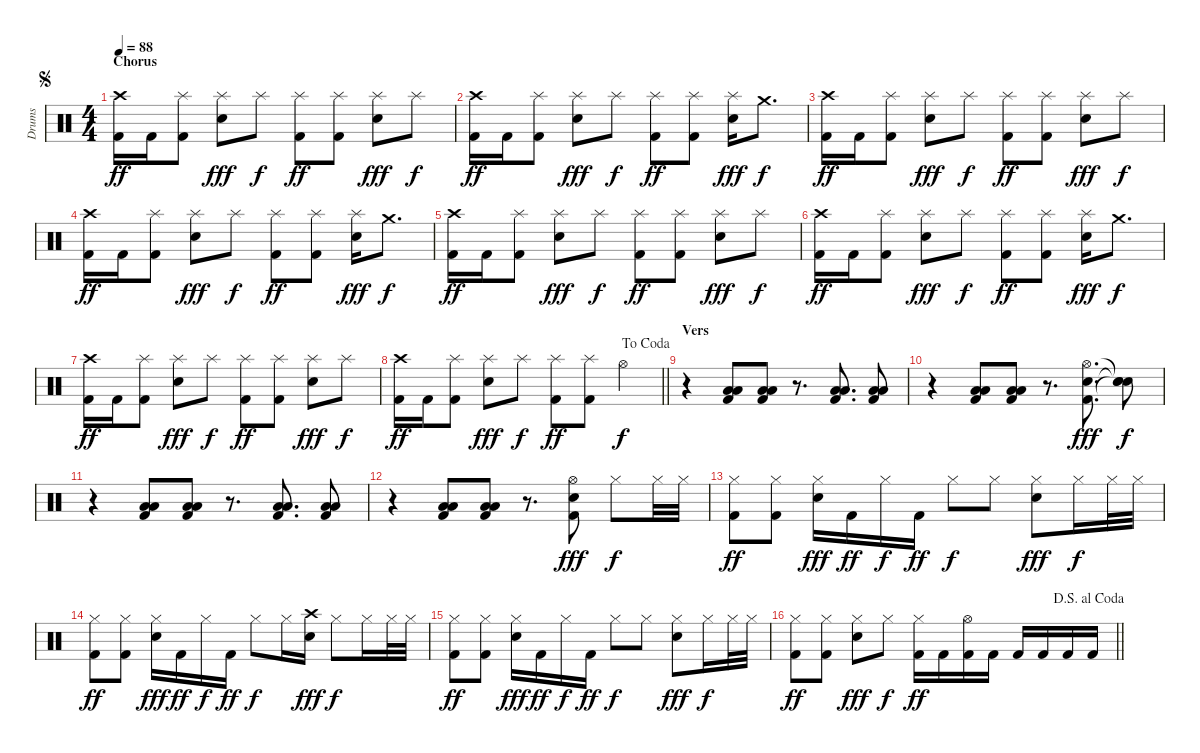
\track ("Drums" "Drums") {instrument percussion}
\staff {score}
\articulation defaults
\ts (4 4)
\section ("" "Chorus")
\jump segno
\tempo 88
\clef neutral
\ks c
("Crash high (hit)" "Kick (hit) 2").16{dy ff} "Kick (hit) 2".16 ("Splash (hit)" "Kick (hit) 2").8 ("Splash (hit)" "Snare (hit) 2").8{dy fff} "Splash (hit)".8{dy f} ("Splash (hit)" "Kick (hit) 2").8{dy ff} ("Splash (hit)" "Kick (hit) 2").8 ("Splash (hit)" "Snare (hit) 2").8{dy fff} "Splash (hit)".8{dy f} |
("Crash high (hit)" "Kick (hit) 2").16{dy ff} "Kick (hit) 2".16 ("Splash (hit)" "Kick (hit) 2").8 ("Splash (hit)" "Snare (hit) 2").8{dy fff} "Splash (hit)".8{dy f} ("Splash (hit)" "Kick (hit) 2").8{dy ff} ("Splash (hit)" "Kick (hit) 2").8 ("Splash (hit)" "Snare (hit) 2").16{dy fff} "Crash medium (hit)".8{d dy f} |
("Crash high (hit)" "Kick (hit) 2").16{dy ff} "Kick (hit) 2".16 ("Splash (hit)" "Kick (hit) 2").8 ("Splash (hit)" "Snare (hit) 2").8{dy fff} "Splash (hit)".8{dy f} ("Splash (hit)" "Kick (hit) 2").8{dy ff} ("Splash (hit)" "Kick (hit) 2").8 ("Splash (hit)" "Snare (hit) 2").8{dy fff} "Splash (hit)".8{dy f} |
("Crash high (hit)" "Kick (hit) 2").16{dy ff} "Kick (hit) 2".16 ("Splash (hit)" "Kick (hit) 2").8 ("Splash (hit)" "Snare (hit) 2").8{dy fff} "Splash (hit)".8{dy f} ("Splash (hit)" "Kick (hit) 2").8{dy ff} ("Splash (hit)" "Kick (hit) 2").8 ("Splash (hit)" "Snare (hit) 2").16{dy fff} "Crash medium (hit)".8{d dy f} |
("Crash high (hit)" "Kick (hit) 2").16{dy ff} "Kick (hit) 2".16 ("Splash (hit)" "Kick (hit) 2").8 ("Splash (hit)" "Snare (hit) 2").8{dy fff} "Splash (hit)".8{dy f} ("Splash (hit)" "Kick (hit) 2").8{dy ff} ("Splash (hit)" "Kick (hit) 2").8 ("Splash (hit)" "Snare (hit) 2").8{dy fff} "Splash (hit)".8{dy f} |
("Crash high (hit)" "Kick (hit) 2").16{dy ff} "Kick (hit) 2".16 ("Splash (hit)" "Kick (hit) 2").8 ("Splash (hit)" "Snare (hit) 2").8{dy fff} "Splash (hit)".8{dy f} ("Splash (hit)" "Kick (hit) 2").8{dy ff} ("Splash (hit)" "Kick (hit) 2").8 ("Splash (hit)" "Snare (hit) 2").16{dy fff} "Crash medium (hit)".8{d dy f} |
("Crash high (hit)" "Kick (hit) 2").16{dy ff} "Kick (hit) 2".16 ("Splash (hit)" "Kick (hit) 2").8 ("Splash (hit)" "Snare (hit) 2").8{dy fff} "Splash (hit)".8{dy f} ("Splash (hit)" "Kick (hit) 2").8{dy ff} ("Splash (hit)" "Kick (hit) 2").8 ("Splash (hit)" "Snare (hit) 2").8{dy fff} "Splash (hit)".8{dy f} |
\jump dacoda
\barLineRight lightlight
("Crash high (hit)" "Kick (hit) 2").16{dy ff} "Kick (hit) 2".16 ("Splash (hit)" "Kick (hit) 2").8 ("Splash (hit)" "Snare (hit) 2").8{dy fff} "Splash (hit)".8{dy f} ("Splash (hit)" "Kick (hit) 2").8{dy ff} ("Splash (hit)" "Kick (hit) 2").8 "Hi-Hat (open)".4{dy f} |
\section ("" "Vers")
r.4 ("Low Tom (hit)" "Low Floor Tom (hit)" "Kick (hit) 2").8 ("Low Tom (hit)" "Low Floor Tom (hit)" "Kick (hit) 2").8 r.8{d} ("Low Tom (hit)" "Low Floor Tom (hit)" "Kick (hit) 2").8{d} ("Low Tom (hit)" "Low Floor Tom (hit)" "Kick (hit) 2").8 |
r.4 ("Low Tom (hit)" "Low Floor Tom (hit)" "Kick (hit) 2").8 ("Low Tom (hit)" "Low Floor Tom (hit)" "Kick (hit) 2").8 r.8{d} ("Hi-Hat (open)" "Snare (hit) 2" "Kick (hit) 2").8{d dy fff} ("Snare (hit)"{t} "Snare (hit)"{t} "Snare (hit)"{t}).8{dy f} |
r.4 ("Low Tom (hit)" "Low Floor Tom (hit)" "Kick (hit) 2").8 ("Low Tom (hit)" "Low Floor Tom (hit)" "Kick (hit) 2").8 r.8{d} ("Low Tom (hit)" "Low Floor Tom (hit)" "Kick (hit) 2").8{d} ("Low Tom (hit)" "Low Floor Tom (hit)" "Kick (hit) 2").8 |
r.4 ("Low Tom (hit)" "Low Floor Tom (hit)" "Kick (hit) 2").8 ("Low Tom (hit)" "Low Floor Tom (hit)" "Kick (hit) 2").8 r.8{d} ("Hi-Hat (open)" "Snare (hit) 2" "Kick (hit) 2").8{dy fff} "Hi-Hat (closed)".8{dy f} "Hi-Hat (closed)".32 "Hi-Hat (closed)".32 |
("Hi-Hat (closed)" "Kick (hit) 2").8{dy ff} ("Hi-Hat (closed)" "Kick (hit) 2").8 ("Hi-Hat (closed)" "Snare (hit) 2").16{dy fff} "Kick (hit) 2".16{dy ff} "Hi-Hat (closed)".16{dy f} "Kick (hit) 2".16{dy ff} "Hi-Hat (closed)".8{dy f} "Hi-Hat (closed)".8 ("Hi-Hat (closed)" "Snare (hit) 2").8{dy fff} "Hi-Hat (closed)".16{dy f} "Hi-Hat (closed)".32 "Hi-Hat (closed)".32 |
("Hi-Hat (closed)" "Kick (hit) 2").8{dy ff} ("Hi-Hat (closed)" "Kick (hit) 2").8 ("Hi-Hat (closed)" "Snare (hit) 2").16{dy fff} "Kick (hit) 2".16{dy ff} "Hi-Hat (closed)".16{dy f} "Kick (hit) 2".16{dy ff} "Hi-Hat (closed)".8{dy f} "Hi-Hat (closed)".16 ("Crash high (hit)" "Snare (hit) 2").16{dy fff} "Hi-Hat (closed)".8{dy f} "Hi-Hat (closed)".16 "Hi-Hat (closed)".32 "Hi-Hat (closed)".32 |
("Hi-Hat (closed)" "Kick (hit) 2").8{dy ff} ("Hi-Hat (closed)" "Kick (hit) 2").8 ("Hi-Hat (closed)" "Snare (hit) 2").16{dy fff} "Kick (hit) 2".16{dy ff} "Hi-Hat (closed)".16{dy f} "Kick (hit) 2".16{dy ff} "Hi-Hat (closed)".8{dy f} "Hi-Hat (closed)".8 ("Hi-Hat (closed)" "Snare (hit) 2").8{dy fff} "Hi-Hat (closed)".16{dy f} "Hi-Hat (closed)".32 "Hi-Hat (closed)".32 |
\jump dalsegnoalcoda
\barLineRight lightlight
("Hi-Hat (closed)" "Kick (hit) 2").8{dy ff} ("Hi-Hat (closed)" "Kick (hit) 2").8 ("Hi-Hat (closed)" "Snare (hit) 2").8{dy fff} "Hi-Hat (closed)".8{dy f} ("Hi-Hat (closed)" "Kick (hit) 2").16{dy ff} "Kick (hit) 2".16 ("Hi-Hat (open)" "Kick (hit) 2").16 "Kick (hit) 2".16 "Kick (hit) 2".16 "Kick (hit) 2".16 "Kick (hit) 2".16 "Kick (hit) 2".16
